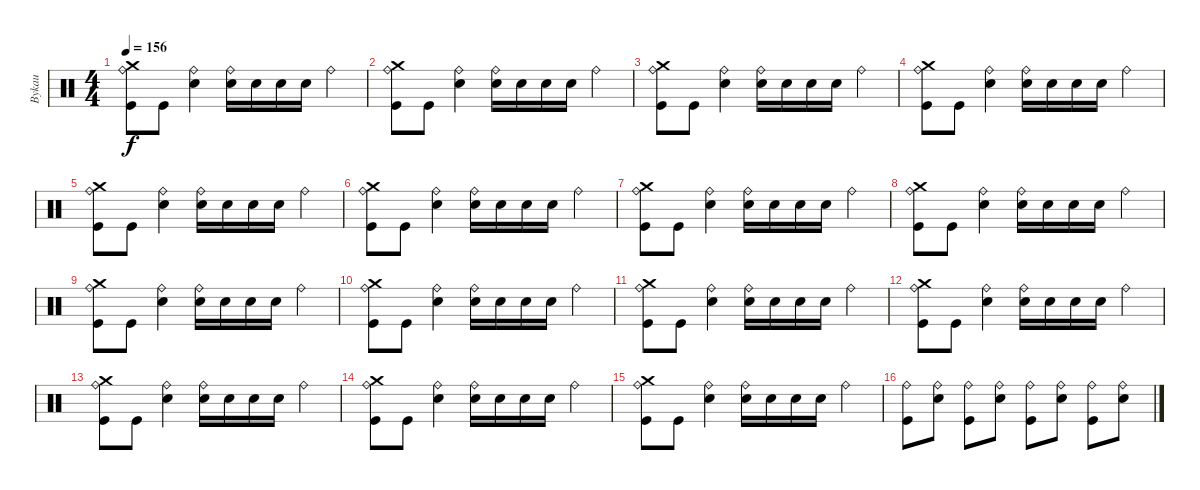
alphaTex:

\track ("Bykau" "Bykau") {instrument percussion}
\staff {score}
\articulation defaults
\ts (4 4)
\tempo 156
\clef neutral
\ks c
("Ride (bell)" "Crash medium (hit)" "Kick (hit)").8{dy f} "Kick (hit)".8 ("Ride (bell)" "Electric Snare (hit)").4 ("Ride (bell)" "Electric Snare (hit)").16 "Electric Snare (hit)".16 "Electric Snare (hit)".16 "Electric Snare (hit)".16 "Ride (bell)".4 |
("Ride (bell)" "Crash medium (hit)" "Kick (hit)").8 "Kick (hit)".8 ("Ride (bell)" "Electric Snare (hit)").4 ("Ride (bell)" "Electric Snare (hit)").16 "Electric Snare (hit)".16 "Electric Snare (hit)".16 "Electric Snare (hit)".16 "Ride (bell)".4 |
("Ride (bell)" "Crash medium (hit)" "Kick (hit)").8 "Kick (hit)".8 ("Ride (bell)" "Electric Snare (hit)").4 ("Ride (bell)" "Electric Snare (hit)").16 "Electric Snare (hit)".16 "Electric Snare (hit)".16 "Electric Snare (hit)".16 "Ride (bell)".4 |
("Ride (bell)" "Crash medium (hit)" "Kick (hit)").8 "Kick (hit)".8 ("Ride (bell)" "Electric Snare (hit)").4 ("Ride (bell)" "Electric Snare (hit)").16 "Electric Snare (hit)".16 "Electric Snare (hit)".16 "Electric Snare (hit)".16 "Ride (bell)".4 |
("Ride (bell)" "Crash medium (hit)" "Kick (hit)").8 "Kick (hit)".8 ("Ride (bell)" "Electric Snare (hit)").4 ("Ride (bell)" "Electric Snare (hit)").16 "Electric Snare (hit)".16 "Electric Snare (hit)".16 "Electric Snare (hit)".16 "Ride (bell)".4 |
("Ride (bell)" "Crash medium (hit)" "Kick (hit)").8 "Kick (hit)".8 ("Ride (bell)" "Electric Snare (hit)").4 ("Ride (bell)" "Electric Snare (hit)").16 "Electric Snare (hit)".16 "Electric Snare (hit)".16 "Electric Snare (hit)".16 "Ride (bell)".4 |
("Ride (bell)" "Crash medium (hit)" "Kick (hit)").8 "Kick (hit)".8 ("Ride (bell)" "Electric Snare (hit)").4 ("Ride (bell)" "Electric Snare (hit)").16 "Electric Snare (hit)".16 "Electric Snare (hit)".16 "Electric Snare (hit)".16 "Ride (bell)".4 |
("Ride (bell)" "Crash medium (hit)" "Kick (hit)").8 "Kick (hit)".8 ("Ride (bell)" "Electric Snare (hit)").4 ("Ride (bell)" "Electric Snare (hit)").16 "Electric Snare (hit)".16 "Electric Snare (hit)".16 "Electric Snare (hit)".16 "Ride (bell)".4 |
("Ride (bell)" "Crash medium (hit)" "Kick (hit)").8 "Kick (hit)".8 ("Ride (bell)" "Electric Snare (hit)").4 ("Ride (bell)" "Electric Snare (hit)").16 "Electric Snare (hit)".16 "Electric Snare (hit)".16 "Electric Snare (hit)".16 "Ride (bell)".4 |
("Ride (bell)" "Crash medium (hit)" "Kick (hit)").8 "Kick (hit)".8 ("Ride (bell)" "Electric Snare (hit)").4 ("Ride (bell)" "Electric Snare (hit)").16 "Electric Snare (hit)".16 "Electric Snare (hit)".16 "Electric Snare (hit)".16 "Ride (bell)".4 |
("Ride (bell)" "Crash medium (hit)" "Kick (hit)").8 "Kick (hit)".8 ("Ride (bell)" "Electric Snare (hit)").4 ("Ride (bell)" "Electric Snare (hit)").16 "Electric Snare (hit)".16 "Electric Snare (hit)".16 "Electric Snare (hit)".16 "Ride (bell)".4 |
("Ride (bell)" "Crash medium (hit)" "Kick (hit)").8 "Kick (hit)".8 ("Ride (bell)" "Electric Snare (hit)").4 ("Ride (bell)" "Electric Snare (hit)").16 "Electric Snare (hit)".16 "Electric Snare (hit)".16 "Electric Snare (hit)".16 "Ride (bell)".4 |
("Ride (bell)" "Crash medium (hit)" "Kick (hit)").8 "Kick (hit)".8 ("Ride (bell)" "Electric Snare (hit)").4 ("Ride (bell)" "Electric Snare (hit)").16 "Electric Snare (hit)".16 "Electric Snare (hit)".16 "Electric Snare (hit)".16 "Ride (bell)".4 |
("Ride (bell)" "Crash medium (hit)" "Kick (hit)").8 "Kick (hit)".8 ("Ride (bell)" "Electric Snare (hit)").4 ("Ride (bell)" "Electric Snare (hit)").16 "Electric Snare (hit)".16 "Electric Snare (hit)".16 "Electric Snare (hit)".16 "Ride (bell)".4 |
("Ride (bell)" "Crash medium (hit)" "Kick (hit)").8 "Kick (hit)".8 ("Ride (bell)" "Electric Snare (hit)").4 ("Ride (bell)" "Electric Snare (hit)").16 "Electric Snare (hit)".16 "Electric Snare (hit)".16 "Electric Snare (hit)".16 "Ride (bell)".4 |
("Ride (bell)" "Kick (hit)").8 ("Ride (bell)" "Electric Snare (hit)").8 ("Ride (bell)" "Kick (hit)").8 ("Ride (bell)" "Electric Snare (hit)").8 ("Ride (bell)" "Kick (hit)").8 ("Ride (bell)" "Electric Snare (hit)").8 ("Ride (bell)" "Kick (hit)").8 ("Ride (bell)" "Electric Snare (hit)").8
